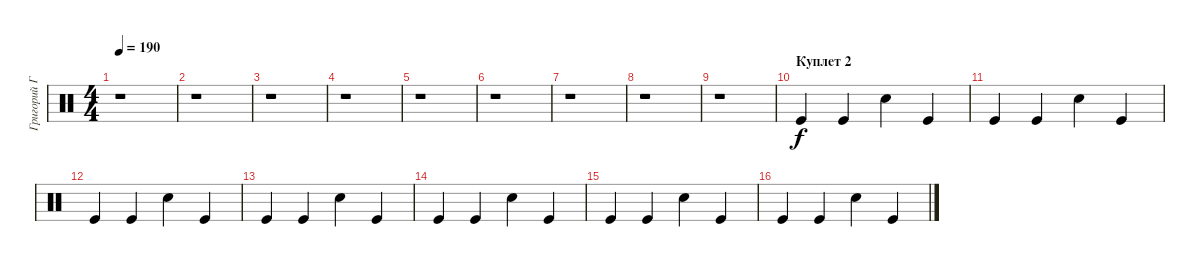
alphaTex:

\track ("Григорий Габерман" "Григорий Г") {instrument percussion}
\staff {score}
\articulation defaults
\ts (4 4)
\tempo 190
\clef neutral
\ks c
r.1{dy f} |
r.1 |
r.1 |
r.1 |
r.1 |
r.1 |
r.1 |
r.1 |
r.1 |
\section ("" "Куплет 2")
"Kick (hit)".4 "Kick (hit)".4 "Snare (hit) 2".4 "Kick (hit)".4 |
"Kick (hit)".4 "Kick (hit)".4 "Snare (hit) 2".4 "Kick (hit)".4 |
"Kick (hit)".4 "Kick (hit)".4 "Snare (hit) 2".4 "Kick (hit)".4 |
"Kick (hit)".4 "Kick (hit)".4 "Snare (hit) 2".4 "Kick (hit)".4 |
"Kick (hit)".4 "Kick (hit)".4 "Snare (hit) 2".4 "Kick (hit)".4 |
"Kick (hit)".4 "Kick (hit)".4 "Snare (hit) 2".4 "Kick (hit)".4 |
"Kick (hit)".4 "Kick (hit)".4 "Snare (hit) 2".4 "Kick (hit)".4
